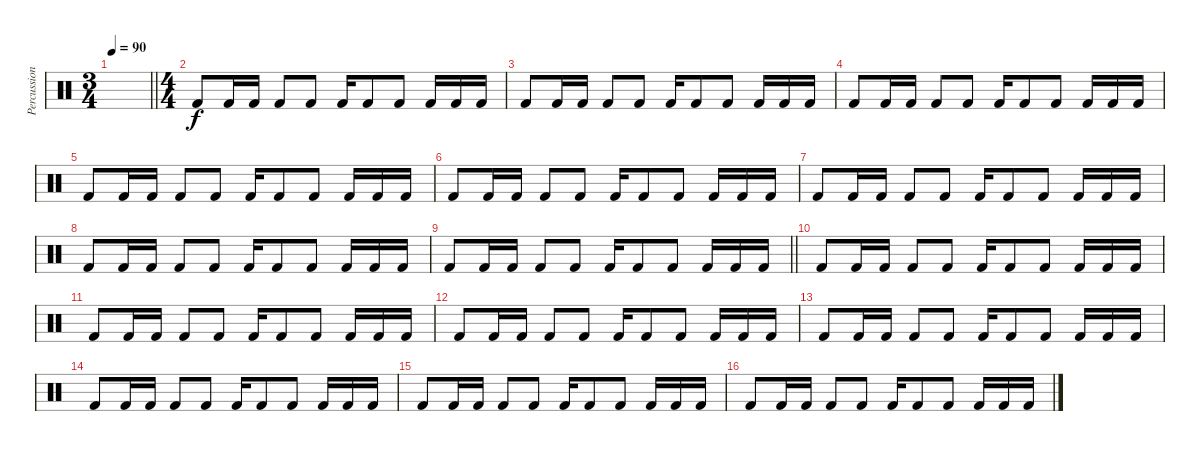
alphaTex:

\track ("Percussion" "Percussion") {instrument percussion}
\staff {score}
\articulation defaults
\ts (3 4)
\tempo 90
\clef neutral
\barLineRight lightlight
\ks c
|
\ts (4 4)
\section ("" "")
"Kick (hit) 2".8 "Kick (hit) 2".16 "Kick (hit) 2".16 "Kick (hit) 2".8 "Kick (hit) 2".8 "Kick (hit) 2".16 "Kick (hit) 2".8 "Kick (hit) 2".8 "Kick (hit) 2".16 "Kick (hit) 2".16 "Kick (hit) 2".16 |
"Kick (hit) 2".8 "Kick (hit) 2".16 "Kick (hit) 2".16 "Kick (hit) 2".8 "Kick (hit) 2".8 "Kick (hit) 2".16 "Kick (hit) 2".8 "Kick (hit) 2".8 "Kick (hit) 2".16 "Kick (hit) 2".16 "Kick (hit) 2".16 |
"Kick (hit) 2".8 "Kick (hit) 2".16 "Kick (hit) 2".16 "Kick (hit) 2".8 "Kick (hit) 2".8 "Kick (hit) 2".16 "Kick (hit) 2".8 "Kick (hit) 2".8 "Kick (hit) 2".16 "Kick (hit) 2".16 "Kick (hit) 2".16 |
"Kick (hit) 2".8 "Kick (hit) 2".16 "Kick (hit) 2".16 "Kick (hit) 2".8 "Kick (hit) 2".8 "Kick (hit) 2".16 "Kick (hit) 2".8 "Kick (hit) 2".8 "Kick (hit) 2".16 "Kick (hit) 2".16 "Kick (hit) 2".16 |
"Kick (hit) 2".8 "Kick (hit) 2".16 "Kick (hit) 2".16 "Kick (hit) 2".8 "Kick (hit) 2".8 "Kick (hit) 2".16 "Kick (hit) 2".8 "Kick (hit) 2".8 "Kick (hit) 2".16 "Kick (hit) 2".16 "Kick (hit) 2".16 |
"Kick (hit) 2".8 "Kick (hit) 2".16 "Kick (hit) 2".16 "Kick (hit) 2".8 "Kick (hit) 2".8 "Kick (hit) 2".16 "Kick (hit) 2".8 "Kick (hit) 2".8 "Kick (hit) 2".16 "Kick (hit) 2".16 "Kick (hit) 2".16 |
"Kick (hit) 2".8 "Kick (hit) 2".16 "Kick (hit) 2".16 "Kick (hit) 2".8 "Kick (hit) 2".8 "Kick (hit) 2".16 "Kick (hit) 2".8 "Kick (hit) 2".8 "Kick (hit) 2".16 "Kick (hit) 2".16 "Kick (hit) 2".16 |
\barLineRight lightlight "Kick (hit) 2".8 "Kick (hit) 2".16 "Kick (hit) 2".16 "Kick (hit) 2".8 "Kick (hit) 2".8 "Kick (hit) 2".16 "Kick (hit) 2".8 "Kick (hit) 2".8 "Kick (hit) 2".16 "Kick (hit) 2".16 "Kick (hit) 2".16
|
\section ("" "")
"Kick (hit) 2".8 "Kick (hit) 2".16 "Kick (hit) 2".16 "Kick (hit) 2".8 "Kick (hit) 2".8 "Kick (hit) 2".16 "Kick (hit) 2".8 "Kick (hit) 2".8 "Kick (hit) 2".16 "Kick (hit) 2".16 "Kick (hit) 2".16 |
"Kick (hit) 2".8 "Kick (hit) 2".16 "Kick (hit) 2".16 "Kick (hit) 2".8 "Kick (hit) 2".8 "Kick (hit) 2".16 "Kick (hit) 2".8 "Kick (hit) 2".8 "Kick (hit) 2".16 "Kick (hit) 2".16 "Kick (hit) 2".16 |
"Kick (hit) 2".8 "Kick (hit) 2".16 "Kick (hit) 2".16 "Kick (hit) 2".8 "Kick (hit) 2".8 "Kick (hit) 2".16 "Kick (hit) 2".8 "Kick (hit) 2".8 "Kick (hit) 2".16 "Kick (hit) 2".16 "Kick (hit) 2".16 |
"Kick (hit) 2".8 "Kick (hit) 2".16 "Kick (hit) 2".16 "Kick (hit) 2".8 "Kick (hit) 2".8 "Kick (hit) 2".16 "Kick (hit) 2".8 "Kick (hit) 2".8 "Kick (hit) 2".16 "Kick (hit) 2".16 "Kick (hit) 2".16 |
"Kick (hit) 2".8 "Kick (hit) 2".16 "Kick (hit) 2".16 "Kick (hit) 2".8 "Kick (hit) 2".8 "Kick (hit) 2".16 "Kick (hit) 2".8 "Kick (hit) 2".8 "Kick (hit) 2".16 "Kick (hit) 2".16 "Kick (hit) 2".16 |
"Kick (hit) 2".8 "Kick (hit) 2".16 "Kick (hit) 2".16 "Kick (hit) 2".8 "Kick (hit) 2".8 "Kick (hit) 2".16 "Kick (hit) 2".8 "Kick (hit) 2".8 "Kick (hit) 2".16 "Kick (hit) 2".16 "Kick (hit) 2".16 |
"Kick (hit) 2".8 "Kick (hit) 2".16 "Kick (hit) 2".16 "Kick (hit) 2".8 "Kick (hit) 2".8 "Kick (hit) 2".16 "Kick (hit) 2".8 "Kick (hit) 2".8 "Kick (hit) 2".16 "Kick (hit) 2".16 "Kick (hit) 2".16
